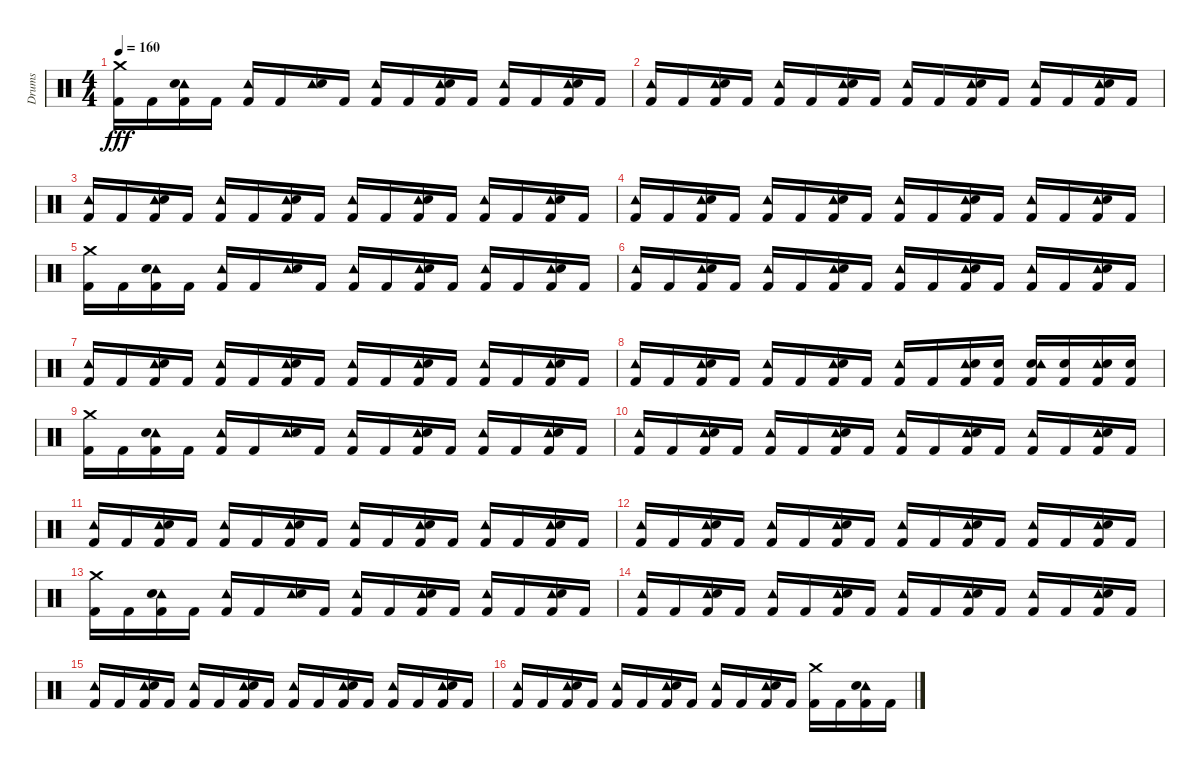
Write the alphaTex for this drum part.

\track ("Drums" "Drums") {instrument percussion}
\staff {score}
\articulation defaults
\ts (4 4)
\tempo 160
\clef neutral
\ks c
("Crash medium (hit)" "Kick (hit) 2").16{dy fff} "Kick (hit) 2".16 ("Kick (hit) 2" "Tambourine (hit)" "Electric Snare (hit)").16 "Kick (hit) 2".16 ("Kick (hit) 2" "Tambourine (hit)").16 "Kick (hit) 2".16 ("Tambourine (hit)" "Electric Snare (hit)").16 "Kick (hit) 2".16 ("Kick (hit) 2" "Tambourine (hit)").16 "Kick (hit) 2".16 ("Kick (hit) 2" "Tambourine (hit)" "Electric Snare (hit)").16 "Kick (hit) 2".16 ("Kick (hit) 2" "Tambourine (hit)").16 "Kick (hit) 2".16 ("Kick (hit) 2" "Tambourine (hit)" "Electric Snare (hit)").16 "Kick (hit) 2".16 |
("Kick (hit) 2" "Tambourine (hit)").16 "Kick (hit) 2".16 ("Kick (hit) 2" "Tambourine (hit)" "Electric Snare (hit)").16 "Kick (hit) 2".16 ("Kick (hit) 2" "Tambourine (hit)").16 "Kick (hit) 2".16 ("Kick (hit) 2" "Tambourine (hit)" "Electric Snare (hit)").16 "Kick (hit) 2".16 ("Kick (hit) 2" "Tambourine (hit)").16 "Kick (hit) 2".16 ("Kick (hit) 2" "Tambourine (hit)" "Electric Snare (hit)").16 "Kick (hit) 2".16 ("Kick (hit) 2" "Tambourine (hit)").16 "Kick (hit) 2".16 ("Kick (hit) 2" "Tambourine (hit)" "Electric Snare (hit)").16 "Kick (hit) 2".16 |
("Kick (hit) 2" "Tambourine (hit)").16 "Kick (hit) 2".16 ("Kick (hit) 2" "Tambourine (hit)" "Electric Snare (hit)").16 "Kick (hit) 2".16 ("Kick (hit) 2" "Tambourine (hit)").16 "Kick (hit) 2".16 ("Kick (hit) 2" "Tambourine (hit)" "Electric Snare (hit)").16 "Kick (hit) 2".16 ("Kick (hit) 2" "Tambourine (hit)").16 "Kick (hit) 2".16 ("Kick (hit) 2" "Tambourine (hit)" "Electric Snare (hit)").16 "Kick (hit) 2".16 ("Kick (hit) 2" "Tambourine (hit)").16 "Kick (hit) 2".16 ("Kick (hit) 2" "Tambourine (hit)" "Electric Snare (hit)").16 "Kick (hit) 2".16 |
("Kick (hit) 2" "Tambourine (hit)").16 "Kick (hit) 2".16 ("Kick (hit) 2" "Tambourine (hit)" "Electric Snare (hit)").16 "Kick (hit) 2".16 ("Kick (hit) 2" "Tambourine (hit)").16 "Kick (hit) 2".16 ("Kick (hit) 2" "Tambourine (hit)" "Electric Snare (hit)").16 "Kick (hit) 2".16 ("Kick (hit) 2" "Tambourine (hit)").16 "Kick (hit) 2".16 ("Kick (hit) 2" "Tambourine (hit)" "Electric Snare (hit)").16 "Kick (hit) 2".16 ("Kick (hit) 2" "Tambourine (hit)").16 "Kick (hit) 2".16 ("Kick (hit) 2" "Tambourine (hit)" "Electric Snare (hit)").16 "Kick (hit) 2".16 |
("Crash medium (hit)" "Kick (hit) 2").16 "Kick (hit) 2".16 ("Kick (hit) 2" "Tambourine (hit)" "Electric Snare (hit)").16 "Kick (hit) 2".16 ("Kick (hit) 2" "Tambourine (hit)").16 "Kick (hit) 2".16 ("Tambourine (hit)" "Electric Snare (hit)").16 "Kick (hit) 2".16 ("Kick (hit) 2" "Tambourine (hit)").16 "Kick (hit) 2".16 ("Kick (hit) 2" "Tambourine (hit)" "Electric Snare (hit)").16 "Kick (hit) 2".16 ("Kick (hit) 2" "Tambourine (hit)").16 "Kick (hit) 2".16 ("Kick (hit) 2" "Tambourine (hit)" "Electric Snare (hit)").16 "Kick (hit) 2".16 |
("Kick (hit) 2" "Tambourine (hit)").16 "Kick (hit) 2".16 ("Kick (hit) 2" "Tambourine (hit)" "Electric Snare (hit)").16 "Kick (hit) 2".16 ("Kick (hit) 2" "Tambourine (hit)").16 "Kick (hit) 2".16 ("Kick (hit) 2" "Tambourine (hit)" "Electric Snare (hit)").16 "Kick (hit) 2".16 ("Kick (hit) 2" "Tambourine (hit)").16 "Kick (hit) 2".16 ("Kick (hit) 2" "Tambourine (hit)" "Electric Snare (hit)").16 "Kick (hit) 2".16 ("Kick (hit) 2" "Tambourine (hit)").16 "Kick (hit) 2".16 ("Kick (hit) 2" "Tambourine (hit)" "Electric Snare (hit)").16 "Kick (hit) 2".16 |
("Kick (hit) 2" "Tambourine (hit)").16 "Kick (hit) 2".16 ("Kick (hit) 2" "Tambourine (hit)" "Electric Snare (hit)").16 "Kick (hit) 2".16 ("Kick (hit) 2" "Tambourine (hit)").16 "Kick (hit) 2".16 ("Kick (hit) 2" "Tambourine (hit)" "Electric Snare (hit)").16 "Kick (hit) 2".16 ("Kick (hit) 2" "Tambourine (hit)").16 "Kick (hit) 2".16 ("Kick (hit) 2" "Tambourine (hit)" "Electric Snare (hit)").16 "Kick (hit) 2".16 ("Kick (hit) 2" "Tambourine (hit)").16 "Kick (hit) 2".16 ("Kick (hit) 2" "Tambourine (hit)" "Electric Snare (hit)").16 "Kick (hit) 2".16 |
("Kick (hit) 2" "Tambourine (hit)").16 "Kick (hit) 2".16 ("Kick (hit) 2" "Tambourine (hit)" "Electric Snare (hit)").16 "Kick (hit) 2".16 ("Kick (hit) 2" "Tambourine (hit)").16 "Kick (hit) 2".16 ("Kick (hit) 2" "Tambourine (hit)" "Electric Snare (hit)").16 "Kick (hit) 2".16 ("Kick (hit) 2" "Tambourine (hit)").16 "Kick (hit) 2".16 ("Kick (hit) 2" "Tambourine (hit)" "Electric Snare (hit)").16 ("Kick (hit) 2" "Electric Snare (hit)").16 ("Electric Snare (hit)" "Kick (hit) 2" "Tambourine (hit)").16 ("Electric Snare (hit)" "Kick (hit) 2").16 ("Kick (hit) 2" "Tambourine (hit)" "Electric Snare (hit)").16 ("Electric Snare (hit)" "Kick (hit) 2").16 |
("Crash medium (hit)" "Kick (hit) 2").16 "Kick (hit) 2".16 ("Kick (hit) 2" "Tambourine (hit)" "Electric Snare (hit)").16 "Kick (hit) 2".16 ("Kick (hit) 2" "Tambourine (hit)").16 "Kick (hit) 2".16 ("Tambourine (hit)" "Electric Snare (hit)").16 "Kick (hit) 2".16 ("Kick (hit) 2" "Tambourine (hit)").16 "Kick (hit) 2".16 ("Kick (hit) 2" "Tambourine (hit)" "Electric Snare (hit)").16 "Kick (hit) 2".16 ("Kick (hit) 2" "Tambourine (hit)").16 "Kick (hit) 2".16 ("Kick (hit) 2" "Tambourine (hit)" "Electric Snare (hit)").16 "Kick (hit) 2".16 |
("Kick (hit) 2" "Tambourine (hit)").16 "Kick (hit) 2".16 ("Kick (hit) 2" "Tambourine (hit)" "Electric Snare (hit)").16 "Kick (hit) 2".16 ("Kick (hit) 2" "Tambourine (hit)").16 "Kick (hit) 2".16 ("Kick (hit) 2" "Tambourine (hit)" "Electric Snare (hit)").16 "Kick (hit) 2".16 ("Kick (hit) 2" "Tambourine (hit)").16 "Kick (hit) 2".16 ("Kick (hit) 2" "Tambourine (hit)" "Electric Snare (hit)").16 "Kick (hit) 2".16 ("Kick (hit) 2" "Tambourine (hit)").16 "Kick (hit) 2".16 ("Kick (hit) 2" "Tambourine (hit)" "Electric Snare (hit)").16 "Kick (hit) 2".16 |
("Kick (hit) 2" "Tambourine (hit)").16 "Kick (hit) 2".16 ("Kick (hit) 2" "Tambourine (hit)" "Electric Snare (hit)").16 "Kick (hit) 2".16 ("Kick (hit) 2" "Tambourine (hit)").16 "Kick (hit) 2".16 ("Kick (hit) 2" "Tambourine (hit)" "Electric Snare (hit)").16 "Kick (hit) 2".16 ("Kick (hit) 2" "Tambourine (hit)").16 "Kick (hit) 2".16 ("Kick (hit) 2" "Tambourine (hit)" "Electric Snare (hit)").16 "Kick (hit) 2".16 ("Kick (hit) 2" "Tambourine (hit)").16 "Kick (hit) 2".16 ("Kick (hit) 2" "Tambourine (hit)" "Electric Snare (hit)").16 "Kick (hit) 2".16 |
("Kick (hit) 2" "Tambourine (hit)").16 "Kick (hit) 2".16 ("Kick (hit) 2" "Tambourine (hit)" "Electric Snare (hit)").16 "Kick (hit) 2".16 ("Kick (hit) 2" "Tambourine (hit)").16 "Kick (hit) 2".16 ("Kick (hit) 2" "Tambourine (hit)" "Electric Snare (hit)").16 "Kick (hit) 2".16 ("Kick (hit) 2" "Tambourine (hit)").16 "Kick (hit) 2".16 ("Kick (hit) 2" "Tambourine (hit)" "Electric Snare (hit)").16 "Kick (hit) 2".16 ("Kick (hit) 2" "Tambourine (hit)").16 "Kick (hit) 2".16 ("Kick (hit) 2" "Tambourine (hit)" "Electric Snare (hit)").16 "Kick (hit) 2".16 |
("Crash medium (hit)" "Kick (hit) 2").16 "Kick (hit) 2".16 ("Kick (hit) 2" "Tambourine (hit)" "Electric Snare (hit)").16 "Kick (hit) 2".16 ("Kick (hit) 2" "Tambourine (hit)").16 "Kick (hit) 2".16 ("Tambourine (hit)" "Electric Snare (hit)").16 "Kick (hit) 2".16 ("Kick (hit) 2" "Tambourine (hit)").16 "Kick (hit) 2".16 ("Kick (hit) 2" "Tambourine (hit)" "Electric Snare (hit)").16 "Kick (hit) 2".16 ("Kick (hit) 2" "Tambourine (hit)").16 "Kick (hit) 2".16 ("Kick (hit) 2" "Tambourine (hit)" "Electric Snare (hit)").16 "Kick (hit) 2".16 |
("Kick (hit) 2" "Tambourine (hit)").16 "Kick (hit) 2".16 ("Kick (hit) 2" "Tambourine (hit)" "Electric Snare (hit)").16 "Kick (hit) 2".16 ("Kick (hit) 2" "Tambourine (hit)").16 "Kick (hit) 2".16 ("Kick (hit) 2" "Tambourine (hit)" "Electric Snare (hit)").16 "Kick (hit) 2".16 ("Kick (hit) 2" "Tambourine (hit)").16 "Kick (hit) 2".16 ("Kick (hit) 2" "Tambourine (hit)" "Electric Snare (hit)").16 "Kick (hit) 2".16 ("Kick (hit) 2" "Tambourine (hit)").16 "Kick (hit) 2".16 ("Kick (hit) 2" "Tambourine (hit)" "Electric Snare (hit)").16 "Kick (hit) 2".16 |
("Kick (hit) 2" "Tambourine (hit)").16 "Kick (hit) 2".16 ("Kick (hit) 2" "Tambourine (hit)" "Electric Snare (hit)").16 "Kick (hit) 2".16 ("Kick (hit) 2" "Tambourine (hit)").16 "Kick (hit) 2".16 ("Kick (hit) 2" "Tambourine (hit)" "Electric Snare (hit)").16 "Kick (hit) 2".16 ("Kick (hit) 2" "Tambourine (hit)").16 "Kick (hit) 2".16 ("Kick (hit) 2" "Tambourine (hit)" "Electric Snare (hit)").16 "Kick (hit) 2".16 ("Kick (hit) 2" "Tambourine (hit)").16 "Kick (hit) 2".16 ("Kick (hit) 2" "Tambourine (hit)" "Electric Snare (hit)").16 "Kick (hit) 2".16 |
("Kick (hit) 2" "Tambourine (hit)").16 "Kick (hit) 2".16 ("Kick (hit) 2" "Tambourine (hit)" "Electric Snare (hit)").16 "Kick (hit) 2".16 ("Kick (hit) 2" "Tambourine (hit)").16 "Kick (hit) 2".16 ("Kick (hit) 2" "Tambourine (hit)" "Electric Snare (hit)").16 "Kick (hit) 2".16 ("Kick (hit) 2" "Tambourine (hit)").16 "Kick (hit) 2".16 ("Kick (hit) 2" "Tambourine (hit)" "Electric Snare (hit)").16 "Kick (hit) 2".16 ("Crash medium (hit)" "Kick (hit) 2").16 "Kick (hit) 2".16 ("Kick (hit) 2" "Tambourine (hit)" "Electric Snare (hit)").16 "Kick (hit) 2".16
